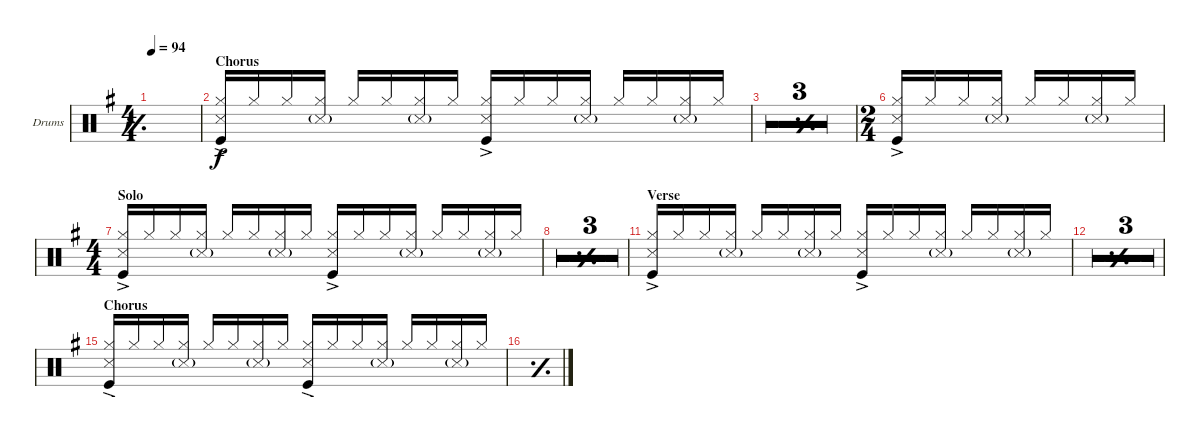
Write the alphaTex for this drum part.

\defaultSystemsLayout 4
\bracketExtendMode groupsimilarinstruments
\firstSystemTrackNameOrientation horizontal
\otherSystemsTrackNameOrientation horizontal
\track ("Drum Kit" "Drums") {multiBarRest instrument percussion}
\staff {score}
\articulation defaults
\ts (4 4)
\tempo 94
\clef neutral
\simile simple
\ks eminor
|
\section ("" "Chorus")
("Hi-Hat (closed)" "Snare (side stick) 3"{ac} "Kick (hit)").16{beam invert} "Hi-Hat (closed)".16 "Hi-Hat (closed)".16 ("Hi-Hat (closed)" "Snare (side stick) 3"{g}).16 "Hi-Hat (closed)".16{beam invert} "Hi-Hat (closed)".16 ("Hi-Hat (closed)" "Snare (side stick) 3"{g}).16 "Hi-Hat (closed)".16 ("Hi-Hat (closed)" "Kick (hit)" "Snare (side stick) 3"{ac}).16{beam invert} "Hi-Hat (closed)".16 "Hi-Hat (closed)".16 ("Hi-Hat (closed)" "Snare (side stick) 3"{g}).16 "Hi-Hat (closed)".16{beam invert} "Hi-Hat (closed)".16 ("Hi-Hat (closed)" "Snare (side stick) 3"{g}).16 "Hi-Hat (closed)".16 |
\simile simple
|
|
|
\ts (2 4)
\simile none
("Hi-Hat (closed)" "Snare (side stick) 3"{ac} "Kick (hit)").16{beam invert} "Hi-Hat (closed)".16 "Hi-Hat (closed)".16 ("Hi-Hat (closed)" "Snare (side stick) 3"{g}).16 "Hi-Hat (closed)".16{beam invert} "Hi-Hat (closed)".16 ("Hi-Hat (closed)" "Snare (side stick) 3"{g}).16 "Hi-Hat (closed)".16 |
\ts (4 4)
\section ("" "Solo")
("Hi-Hat (closed)" "Snare (side stick) 3"{ac} "Kick (hit)").16{beam invert} "Hi-Hat (closed)".16 "Hi-Hat (closed)".16 ("Hi-Hat (closed)" "Snare (side stick) 3"{g}).16 "Hi-Hat (closed)".16{beam invert} "Hi-Hat (closed)".16 ("Hi-Hat (closed)" "Snare (side stick) 3"{g}).16 "Hi-Hat (closed)".16 ("Hi-Hat (closed)" "Kick (hit)" "Snare (side stick) 3"{ac}).16{beam invert} "Hi-Hat (closed)".16 "Hi-Hat (closed)".16 ("Hi-Hat (closed)" "Snare (side stick) 3"{g}).16 "Hi-Hat (closed)".16{beam invert} "Hi-Hat (closed)".16 ("Hi-Hat (closed)" "Snare (side stick) 3"{g}).16 "Hi-Hat (closed)".16 |
\simile simple
|
|
|
\section ("" "Verse")
\simile none
("Hi-Hat (closed)" "Snare (side stick) 3"{ac} "Kick (hit)").16{beam invert} "Hi-Hat (closed)".16 "Hi-Hat (closed)".16 ("Hi-Hat (closed)" "Snare (side stick) 3"{g}).16 "Hi-Hat (closed)".16{beam invert} "Hi-Hat (closed)".16 ("Hi-Hat (closed)" "Snare (side stick) 3"{g}).16 "Hi-Hat (closed)".16 ("Hi-Hat (closed)" "Kick (hit)" "Snare (side stick) 3"{ac}).16{beam invert} "Hi-Hat (closed)".16 "Hi-Hat (closed)".16 ("Hi-Hat (closed)" "Snare (side stick) 3"{g}).16 "Hi-Hat (closed)".16{beam invert} "Hi-Hat (closed)".16 ("Hi-Hat (closed)" "Snare (side stick) 3"{g}).16 "Hi-Hat (closed)".16 |
\simile simple
|
|
|
\section ("" "Chorus")
\simile none
("Hi-Hat (closed)" "Snare (side stick) 3"{ac} "Kick (hit)").16{beam invert} "Hi-Hat (closed)".16 "Hi-Hat (closed)".16 ("Hi-Hat (closed)" "Snare (side stick) 3"{g}).16 "Hi-Hat (closed)".16{beam invert} "Hi-Hat (closed)".16 ("Hi-Hat (closed)" "Snare (side stick) 3"{g}).16 "Hi-Hat (closed)".16 ("Hi-Hat (closed)" "Kick (hit)" "Snare (side stick) 3"{ac}).16{beam invert} "Hi-Hat (closed)".16 "Hi-Hat (closed)".16 ("Hi-Hat (closed)" "Snare (side stick) 3"{g}).16 "Hi-Hat (closed)".16{beam invert} "Hi-Hat (closed)".16 ("Hi-Hat (closed)" "Snare (side stick) 3"{g}).16 "Hi-Hat (closed)".16 |
\simile simple
